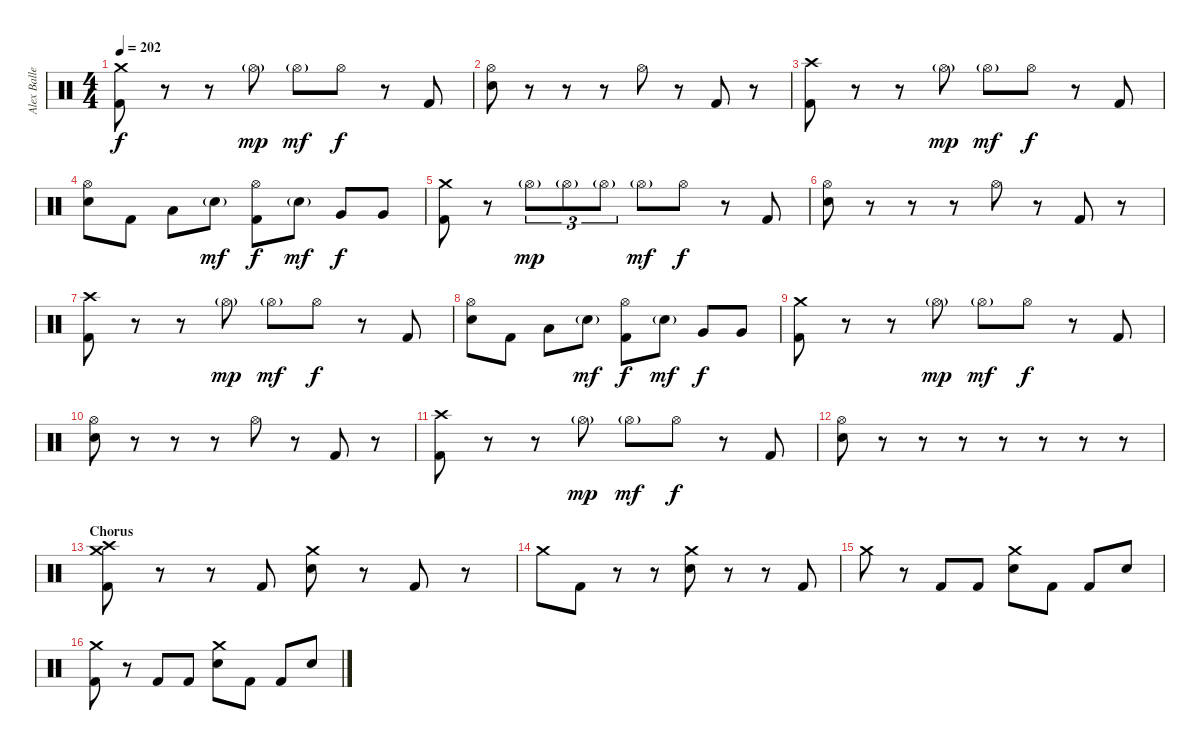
\track ("Alex Ballew" "Alex Balle") {instrument percussion}
\staff {score}
\articulation defaults
\ts (4 4)
\tempo 202
\clef neutral
\ks c
("Crash medium (hit)" "Kick (hit) 2").8{dy f} r.8 r.8 "Hi-Hat (open)"{g}.8{dy mp} "Hi-Hat (open)"{g}.8{dy mf} "Hi-Hat (open)".8{dy f} r.8 "Kick (hit) 2".8 |
("Hi-Hat (open)" "Electric Snare (hit)").8 r.8 r.8 r.8 "Hi-Hat (open)".8 r.8 "Kick (hit) 2".8 r.8 |
("Crash high (hit)" "Kick (hit) 2").8 r.8 r.8 "Hi-Hat (open)"{g}.8{dy mp} "Hi-Hat (open)"{g}.8{dy mf} "Hi-Hat (open)".8{dy f} r.8 "Kick (hit) 2".8 |
("Hi-Hat (open)" "Electric Snare (hit)").8 "Kick (hit) 2".8 "Low Tom (hit)".8 "Snare (hit) 2"{g}.8{dy mf} ("Hi-Hat (open)" "Kick (hit) 2").8{dy f} "Snare (hit) 2"{g}.8{dy mf} "Very Low Tom (hit)".8{dy f} "Very Low Tom (hit)".8 |
("Crash medium (hit)" "Kick (hit) 2").8 r.8 "Hi-Hat (open)"{g}.8{tu (3 2) dy mp} "Hi-Hat (open)"{g}.8{tu (3 2)} "Hi-Hat (open)"{g}.8{tu (3 2)} "Hi-Hat (open)"{g}.8{dy mf} "Hi-Hat (open)".8{dy f} r.8 "Kick (hit) 2".8 |
("Hi-Hat (open)" "Electric Snare (hit)").8 r.8 r.8 r.8 "Hi-Hat (open)".8 r.8 "Kick (hit) 2".8 r.8 |
("Crash high (hit)" "Kick (hit) 2").8 r.8 r.8 "Hi-Hat (open)"{g}.8{dy mp} "Hi-Hat (open)"{g}.8{dy mf} "Hi-Hat (open)".8{dy f} r.8 "Kick (hit) 2".8 |
("Hi-Hat (open)" "Electric Snare (hit)").8 "Kick (hit) 2".8 "Low Tom (hit)".8 "Snare (hit) 2"{g}.8{dy mf} ("Hi-Hat (open)" "Kick (hit) 2").8{dy f} "Snare (hit) 2"{g}.8{dy mf} "Very Low Tom (hit)".8{dy f} "Very Low Tom (hit)".8 |
("Crash medium (hit)" "Kick (hit) 2").8 r.8 r.8 "Hi-Hat (open)"{g}.8{dy mp} "Hi-Hat (open)"{g}.8{dy mf} "Hi-Hat (open)".8{dy f} r.8 "Kick (hit) 2".8 |
("Hi-Hat (open)" "Electric Snare (hit)").8 r.8 r.8 r.8 "Hi-Hat (open)".8 r.8 "Kick (hit) 2".8 r.8 |
("Crash high (hit)" "Kick (hit) 2").8 r.8 r.8 "Hi-Hat (open)"{g}.8{dy mp} "Hi-Hat (open)"{g}.8{dy mf} "Hi-Hat (open)".8{dy f} r.8 "Kick (hit) 2".8 |
("Hi-Hat (open)" "Electric Snare (hit)").8 r.8 r.8 r.8 r.8 r.8 r.8 r.8 |
\section ("" "Chorus")
("Crash medium (hit)" "Crash high (hit)" "Kick (hit) 2").8 r.8 r.8 "Kick (hit) 2".8 ("Crash medium (hit)" "Electric Snare (hit)").8 r.8 "Kick (hit) 2".8 r.8 |
"Crash medium (hit)".8 "Kick (hit) 2".8 r.8 r.8 ("Crash medium (hit)" "Electric Snare (hit)").8 r.8 r.8 "Kick (hit) 2".8 |
"Crash medium (hit)".8 r.8 "Kick (hit) 2".8 "Kick (hit) 2".8 ("Crash medium (hit)" "Electric Snare (hit)").8 "Kick (hit) 2".8 "Kick (hit) 2".8 "Electric Snare (hit)".8 |
("Crash medium (hit)" "Kick (hit) 2").8 r.8 "Kick (hit) 2".8 "Kick (hit) 2".8 ("Crash medium (hit)" "Electric Snare (hit)").8 "Kick (hit) 2".8 "Kick (hit) 2".8 "Electric Snare (hit)".8
